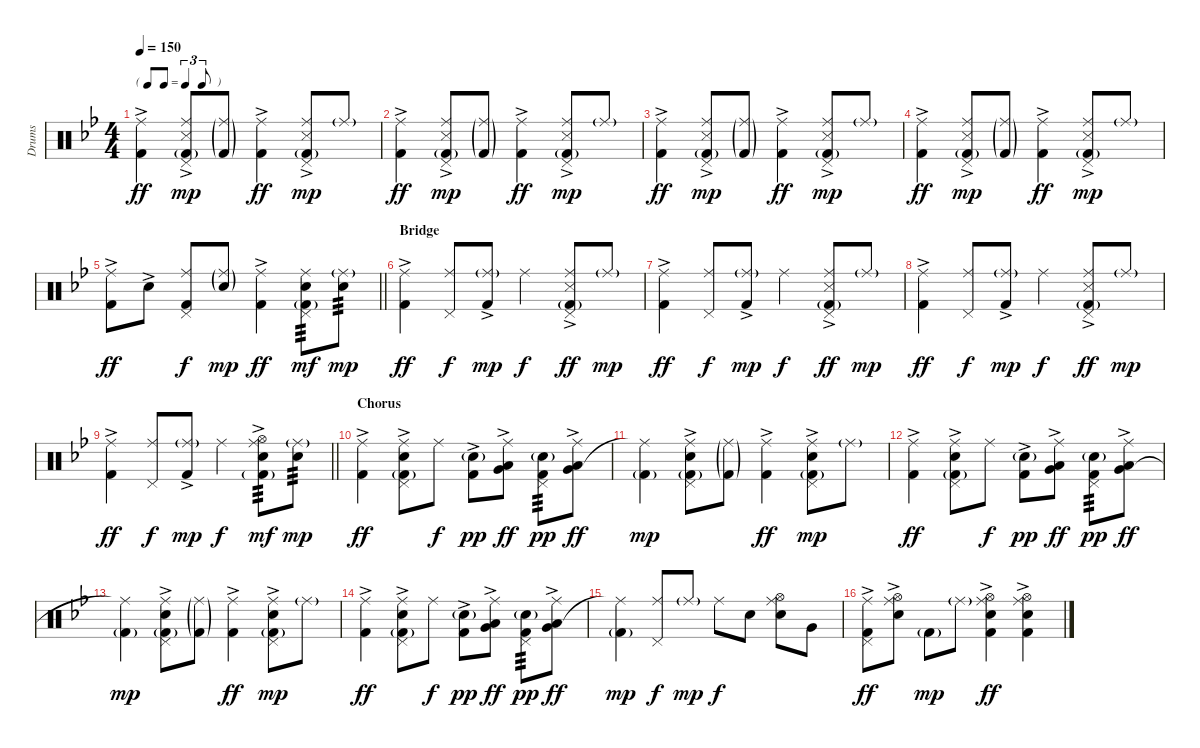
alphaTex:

\track ("Drums" "Drums") {instrument percussion}
\staff {score}
\articulation defaults
\ts (4 4)
\tf triplet8th
\tempo 150
\clef neutral
\ks bb
("Kick (hit) 2"{ac} "Ride (middle)").4{dy ff} ("Snare (side stick) 3"{ac} "Kick (hit) 2"{g} "Pedal Hi-Hat (hit)" "Ride (middle)").8{dy mp} ("Kick (hit) 2"{g} "Ride (middle)"{g}).8 ("Kick (hit) 2"{ac} "Ride (middle)").4{dy ff} ("Snare (side stick) 3"{ac} "Kick (hit) 2"{g} "Pedal Hi-Hat (hit)" "Ride (middle)").8{dy mp} "Ride (middle)"{g}.8 |
("Kick (hit) 2"{ac} "Ride (middle)").4{dy ff} ("Snare (side stick) 3"{ac} "Kick (hit) 2"{g} "Pedal Hi-Hat (hit)" "Ride (middle)").8{dy mp} ("Kick (hit) 2"{g} "Ride (middle)"{g}).8 ("Kick (hit) 2"{ac} "Ride (middle)").4{dy ff} ("Snare (side stick) 3"{ac} "Kick (hit) 2"{g} "Pedal Hi-Hat (hit)" "Ride (middle)").8{dy mp} "Ride (middle)"{g}.8 |
("Kick (hit) 2"{ac} "Ride (middle)").4{dy ff} ("Snare (side stick) 3"{ac} "Kick (hit) 2"{g} "Pedal Hi-Hat (hit)" "Ride (middle)").8{dy mp} ("Kick (hit) 2"{g} "Ride (middle)"{g}).8 ("Kick (hit) 2"{ac} "Ride (middle)").4{dy ff} ("Snare (side stick) 3"{ac} "Kick (hit) 2"{g} "Pedal Hi-Hat (hit)" "Ride (middle)").8{dy mp} "Ride (middle)"{g}.8 |
("Kick (hit) 2"{ac} "Ride (middle)").4{dy ff} ("Snare (side stick) 3"{ac} "Kick (hit) 2"{g} "Pedal Hi-Hat (hit)" "Ride (middle)").8{dy mp} ("Kick (hit) 2"{g} "Ride (middle)"{g}).8 ("Kick (hit) 2"{ac} "Ride (middle)").4{dy ff} ("Snare (side stick) 3"{ac} "Kick (hit) 2"{g} "Pedal Hi-Hat (hit)" "Ride (middle)").8{dy mp} "Ride (middle)"{g}.8 |
\barLineRight lightlight
("Kick (hit) 2"{ac} "Ride (middle)").8{dy ff} "Snare (hit) 2"{ac}.8 ("Kick (hit) 2" "Pedal Hi-Hat (hit)" "Ride (middle)").8{dy f} ("Snare (hit) 2"{g} "Ride (middle)"{g}).8{dy mp} ("Kick (hit) 2"{ac} "Ride (middle)").4{dy ff} ("Kick (hit) 2"{g} "Snare (hit) 2" "Pedal Hi-Hat (hit)" "Ride (middle)").8{tp 3 dy mf} ("Snare (hit) 2" "Ride (middle)"{g}).8{tp 3 dy mp} |
\section ("" "Bridge")
("Kick (hit) 2"{ac} "Ride (middle)"{ac}).4{dy ff} ("Pedal Hi-Hat (hit)" "Ride (middle)").8{dy f} ("Kick (hit) 2"{ac} "Ride (middle)"{g}).8{dy mp} "Ride (middle)".4{dy f} ("Kick (hit) 2"{g} "Snare (side stick) 3"{ac} "Pedal Hi-Hat (hit)" "Ride (middle)").8{dy ff} "Ride (middle)"{g}.8{dy mp} |
("Kick (hit) 2"{ac} "Ride (middle)"{ac}).4{dy ff} ("Pedal Hi-Hat (hit)" "Ride (middle)").8{dy f} ("Kick (hit) 2"{ac} "Ride (middle)"{g}).8{dy mp} "Ride (middle)".4{dy f} ("Kick (hit) 2"{g} "Snare (side stick) 3"{ac} "Pedal Hi-Hat (hit)" "Ride (middle)").8{dy ff} "Ride (middle)"{g}.8{dy mp} |
("Kick (hit) 2"{ac} "Ride (middle)"{ac}).4{dy ff} ("Pedal Hi-Hat (hit)" "Ride (middle)").8{dy f} ("Kick (hit) 2"{ac} "Ride (middle)"{g}).8{dy mp} "Ride (middle)".4{dy f} ("Kick (hit) 2"{g} "Snare (side stick) 3"{ac} "Pedal Hi-Hat (hit)" "Ride (middle)").8{dy ff} "Ride (middle)"{g}.8{dy mp} |
\barLineRight lightlight
("Kick (hit) 2"{ac} "Ride (middle)"{ac}).4{dy ff} ("Pedal Hi-Hat (hit)" "Ride (middle)").8{dy f} ("Kick (hit) 2"{ac} "Ride (middle)"{g}).8{dy mp} "Ride (middle)".4{dy f} ("Kick (hit) 2"{g} "Snare (hit) 2"{ac} "Hi-Hat (open)" "Ride (middle)").8{tp 3 dy mf} ("Snare (hit) 2" "Ride (middle)"{g}).8{tp 3 dy mp} |
\section ("" "Chorus")
("Kick (hit) 2"{ac} "Ride (middle)").4{dy ff} ("Kick (hit) 2"{g} "Snare (hit) 2"{ac} "Pedal Hi-Hat (hit)" "Ride (middle)").8 "Ride (middle)".8{dy f} ("Kick (hit) 2"{ac} "Snare (hit) 2"{g}).8{dy pp} ("Low Floor Tom (hit)" "Very Low Tom (hit)" "Ride (middle)"{ac}).8{dy ff} ("Kick (hit) 2" "Snare (hit) 2"{g} "Pedal Hi-Hat (hit)").8{tp 3 dy pp} ("Low Floor Tom (hit)"{ac} "Very Low Tom (hit)" "Ride (middle)"{ac}).8{dy ff} |
("Kick (hit) 2"{g} "Ride (middle)"{t}).4{dy mp} ("Snare (hit) 2"{ac} "Kick (hit) 2"{g} "Pedal Hi-Hat (hit)" "Ride (middle)").8 ("Kick (hit) 2"{g} "Ride (middle)"{g}).8 ("Kick (hit) 2"{ac} "Ride (middle)").4{dy ff} ("Snare (hit) 2"{ac} "Kick (hit) 2"{g} "Pedal Hi-Hat (hit)" "Ride (middle)").8{dy mp} "Ride (middle)"{g}.8 |
("Kick (hit) 2"{ac} "Ride (middle)").4{dy ff} ("Kick (hit) 2"{g} "Snare (hit) 2"{ac} "Pedal Hi-Hat (hit)" "Ride (middle)").8 "Ride (middle)".8{dy f} ("Kick (hit) 2"{ac} "Snare (hit) 2"{g}).8{dy pp} ("Low Floor Tom (hit)" "Very Low Tom (hit)" "Ride (middle)"{ac}).8{dy ff} ("Kick (hit) 2" "Snare (hit) 2"{g} "Pedal Hi-Hat (hit)").8{tp 3 dy pp} ("Low Floor Tom (hit)"{ac} "Very Low Tom (hit)" "Ride (middle)"{ac}).8{dy ff} |
("Kick (hit) 2"{g} "Ride (middle)"{t}).4{dy mp} ("Snare (hit) 2"{ac} "Kick (hit) 2"{g} "Pedal Hi-Hat (hit)" "Ride (middle)").8 ("Kick (hit) 2"{g} "Ride (middle)"{g}).8 ("Kick (hit) 2"{ac} "Ride (middle)").4{dy ff} ("Snare (hit) 2"{ac} "Kick (hit) 2"{g} "Pedal Hi-Hat (hit)" "Ride (middle)").8{dy mp} "Ride (middle)"{g}.8 |
("Kick (hit) 2"{ac} "Ride (middle)").4{dy ff} ("Kick (hit) 2"{g} "Snare (hit) 2"{ac} "Pedal Hi-Hat (hit)" "Ride (middle)").8 "Ride (middle)".8{dy f} ("Kick (hit) 2"{ac} "Snare (hit) 2"{g}).8{dy pp} ("Low Floor Tom (hit)" "Very Low Tom (hit)" "Ride (middle)"{ac}).8{dy ff} ("Kick (hit) 2" "Snare (hit) 2"{g} "Pedal Hi-Hat (hit)").8{tp 3 dy pp} ("Low Floor Tom (hit)"{ac} "Very Low Tom (hit)" "Ride (middle)"{ac}).8{dy ff} |
("Kick (hit) 2"{g} "Ride (middle)"{t}).4{dy mp} ("Pedal Hi-Hat (hit)" "Ride (middle)").8{dy f} "Ride (middle)"{g}.8{dy mp} "Ride (middle)".8{dy f} "Snare (hit) 2".8 ("Snare (hit) 2" "Hi-Hat (open)" "Ride (middle)").8 "Very Low Tom (hit)".8 |
("Kick (hit) 2" "Pedal Hi-Hat (hit)"{ac} "Ride (middle)").8{dy ff} ("Snare (hit) 2"{ac} "Hi-Hat (open)" "Ride (middle)").8 "Kick (hit) 2"{g}.8{dy mp} "Ride (middle)"{g}.8 ("Kick (hit) 2"{ac} "Snare (hit) 2" "Hi-Hat (open)" "Ride (middle)").4{dy ff} ("Kick (hit) 2"{ac} "Snare (hit) 2" "Hi-Hat (open)" "Ride (middle)").4
